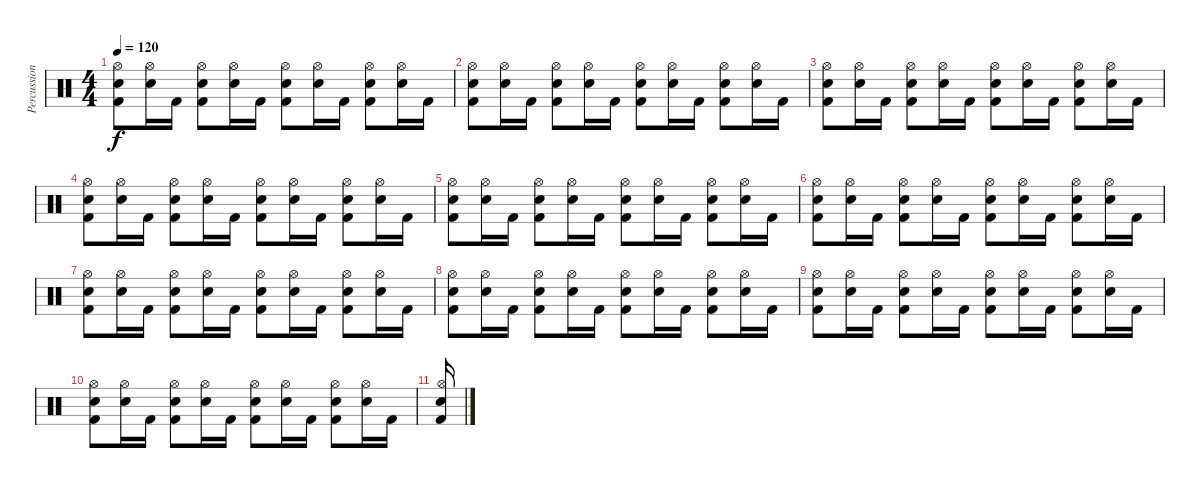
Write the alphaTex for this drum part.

\track ("Percussions" "Percussion") {instrument percussion}
\staff {score}
\articulation defaults
\ts (4 4)
\tempo 120
\clef neutral
\ks c
("Kick (hit) 2" "Hi-Hat (open)" "Snare (hit) 2").8{dy f} ("Hi-Hat (open)" "Snare (hit) 2").16 "Kick (hit) 2".16 ("Kick (hit) 2" "Hi-Hat (open)" "Snare (hit) 2").8 ("Hi-Hat (open)" "Snare (hit) 2").16 "Kick (hit) 2".16 ("Kick (hit) 2" "Hi-Hat (open)" "Snare (hit) 2").8 ("Hi-Hat (open)" "Snare (hit) 2").16 "Kick (hit) 2".16 ("Kick (hit) 2" "Hi-Hat (open)" "Snare (hit) 2").8 ("Hi-Hat (open)" "Snare (hit) 2").16 "Kick (hit) 2".16 |
("Kick (hit) 2" "Hi-Hat (open)" "Snare (hit) 2").8 ("Hi-Hat (open)" "Snare (hit) 2").16 "Kick (hit) 2".16 ("Kick (hit) 2" "Hi-Hat (open)" "Snare (hit) 2").8 ("Hi-Hat (open)" "Snare (hit) 2").16 "Kick (hit) 2".16 ("Kick (hit) 2" "Hi-Hat (open)" "Snare (hit) 2").8 ("Hi-Hat (open)" "Snare (hit) 2").16 "Kick (hit) 2".16 ("Kick (hit) 2" "Hi-Hat (open)" "Snare (hit) 2").8 ("Hi-Hat (open)" "Snare (hit) 2").16 "Kick (hit) 2".16 |
("Kick (hit) 2" "Hi-Hat (open)" "Snare (hit) 2").8 ("Hi-Hat (open)" "Snare (hit) 2").16 "Kick (hit) 2".16 ("Kick (hit) 2" "Hi-Hat (open)" "Snare (hit) 2").8 ("Hi-Hat (open)" "Snare (hit) 2").16 "Kick (hit) 2".16 ("Kick (hit) 2" "Hi-Hat (open)" "Snare (hit) 2").8 ("Hi-Hat (open)" "Snare (hit) 2").16 "Kick (hit) 2".16 ("Kick (hit) 2" "Hi-Hat (open)" "Snare (hit) 2").8 ("Hi-Hat (open)" "Snare (hit) 2").16 "Kick (hit) 2".16 |
("Kick (hit) 2" "Hi-Hat (open)" "Snare (hit) 2").8 ("Hi-Hat (open)" "Snare (hit) 2").16 "Kick (hit) 2".16 ("Kick (hit) 2" "Hi-Hat (open)" "Snare (hit) 2").8 ("Hi-Hat (open)" "Snare (hit) 2").16 "Kick (hit) 2".16 ("Kick (hit) 2" "Hi-Hat (open)" "Snare (hit) 2").8 ("Hi-Hat (open)" "Snare (hit) 2").16 "Kick (hit) 2".16 ("Kick (hit) 2" "Hi-Hat (open)" "Snare (hit) 2").8 ("Hi-Hat (open)" "Snare (hit) 2").16 "Kick (hit) 2".16 |
("Kick (hit) 2" "Hi-Hat (open)" "Snare (hit) 2").8 ("Hi-Hat (open)" "Snare (hit) 2").16 "Kick (hit) 2".16 ("Kick (hit) 2" "Hi-Hat (open)" "Snare (hit) 2").8 ("Hi-Hat (open)" "Snare (hit) 2").16 "Kick (hit) 2".16 ("Kick (hit) 2" "Hi-Hat (open)" "Snare (hit) 2").8 ("Hi-Hat (open)" "Snare (hit) 2").16 "Kick (hit) 2".16 ("Kick (hit) 2" "Hi-Hat (open)" "Snare (hit) 2").8 ("Hi-Hat (open)" "Snare (hit) 2").16 "Kick (hit) 2".16 |
("Kick (hit) 2" "Hi-Hat (open)" "Snare (hit) 2").8 ("Hi-Hat (open)" "Snare (hit) 2").16 "Kick (hit) 2".16 ("Kick (hit) 2" "Hi-Hat (open)" "Snare (hit) 2").8 ("Hi-Hat (open)" "Snare (hit) 2").16 "Kick (hit) 2".16 ("Kick (hit) 2" "Hi-Hat (open)" "Snare (hit) 2").8 ("Hi-Hat (open)" "Snare (hit) 2").16 "Kick (hit) 2".16 ("Kick (hit) 2" "Hi-Hat (open)" "Snare (hit) 2").8 ("Hi-Hat (open)" "Snare (hit) 2").16 "Kick (hit) 2".16 |
("Kick (hit) 2" "Hi-Hat (open)" "Snare (hit) 2").8 ("Hi-Hat (open)" "Snare (hit) 2").16 "Kick (hit) 2".16 ("Kick (hit) 2" "Hi-Hat (open)" "Snare (hit) 2").8 ("Hi-Hat (open)" "Snare (hit) 2").16 "Kick (hit) 2".16 ("Kick (hit) 2" "Hi-Hat (open)" "Snare (hit) 2").8 ("Hi-Hat (open)" "Snare (hit) 2").16 "Kick (hit) 2".16 ("Kick (hit) 2" "Hi-Hat (open)" "Snare (hit) 2").8 ("Hi-Hat (open)" "Snare (hit) 2").16 "Kick (hit) 2".16 |
("Kick (hit) 2" "Hi-Hat (open)" "Snare (hit) 2").8 ("Hi-Hat (open)" "Snare (hit) 2").16 "Kick (hit) 2".16 ("Kick (hit) 2" "Hi-Hat (open)" "Snare (hit) 2").8 ("Hi-Hat (open)" "Snare (hit) 2").16 "Kick (hit) 2".16 ("Kick (hit) 2" "Hi-Hat (open)" "Snare (hit) 2").8 ("Hi-Hat (open)" "Snare (hit) 2").16 "Kick (hit) 2".16 ("Kick (hit) 2" "Hi-Hat (open)" "Snare (hit) 2").8 ("Hi-Hat (open)" "Snare (hit) 2").16 "Kick (hit) 2".16 |
("Kick (hit) 2" "Hi-Hat (open)" "Snare (hit) 2").8 ("Hi-Hat (open)" "Snare (hit) 2").16 "Kick (hit) 2".16 ("Kick (hit) 2" "Hi-Hat (open)" "Snare (hit) 2").8 ("Hi-Hat (open)" "Snare (hit) 2").16 "Kick (hit) 2".16 ("Kick (hit) 2" "Hi-Hat (open)" "Snare (hit) 2").8 ("Hi-Hat (open)" "Snare (hit) 2").16 "Kick (hit) 2".16 ("Kick (hit) 2" "Hi-Hat (open)" "Snare (hit) 2").8 ("Hi-Hat (open)" "Snare (hit) 2").16 "Kick (hit) 2".16 |
("Kick (hit) 2" "Hi-Hat (open)" "Snare (hit) 2").8 ("Hi-Hat (open)" "Snare (hit) 2").16 "Kick (hit) 2".16 ("Kick (hit) 2" "Hi-Hat (open)" "Snare (hit) 2").8 ("Hi-Hat (open)" "Snare (hit) 2").16 "Kick (hit) 2".16 ("Kick (hit) 2" "Hi-Hat (open)" "Snare (hit) 2").8 ("Hi-Hat (open)" "Snare (hit) 2").16 "Kick (hit) 2".16 ("Kick (hit) 2" "Hi-Hat (open)" "Snare (hit) 2").8 ("Hi-Hat (open)" "Snare (hit) 2").16 "Kick (hit) 2".16 |
("Kick (hit) 2" "Hi-Hat (open)" "Snare (hit) 2").16
